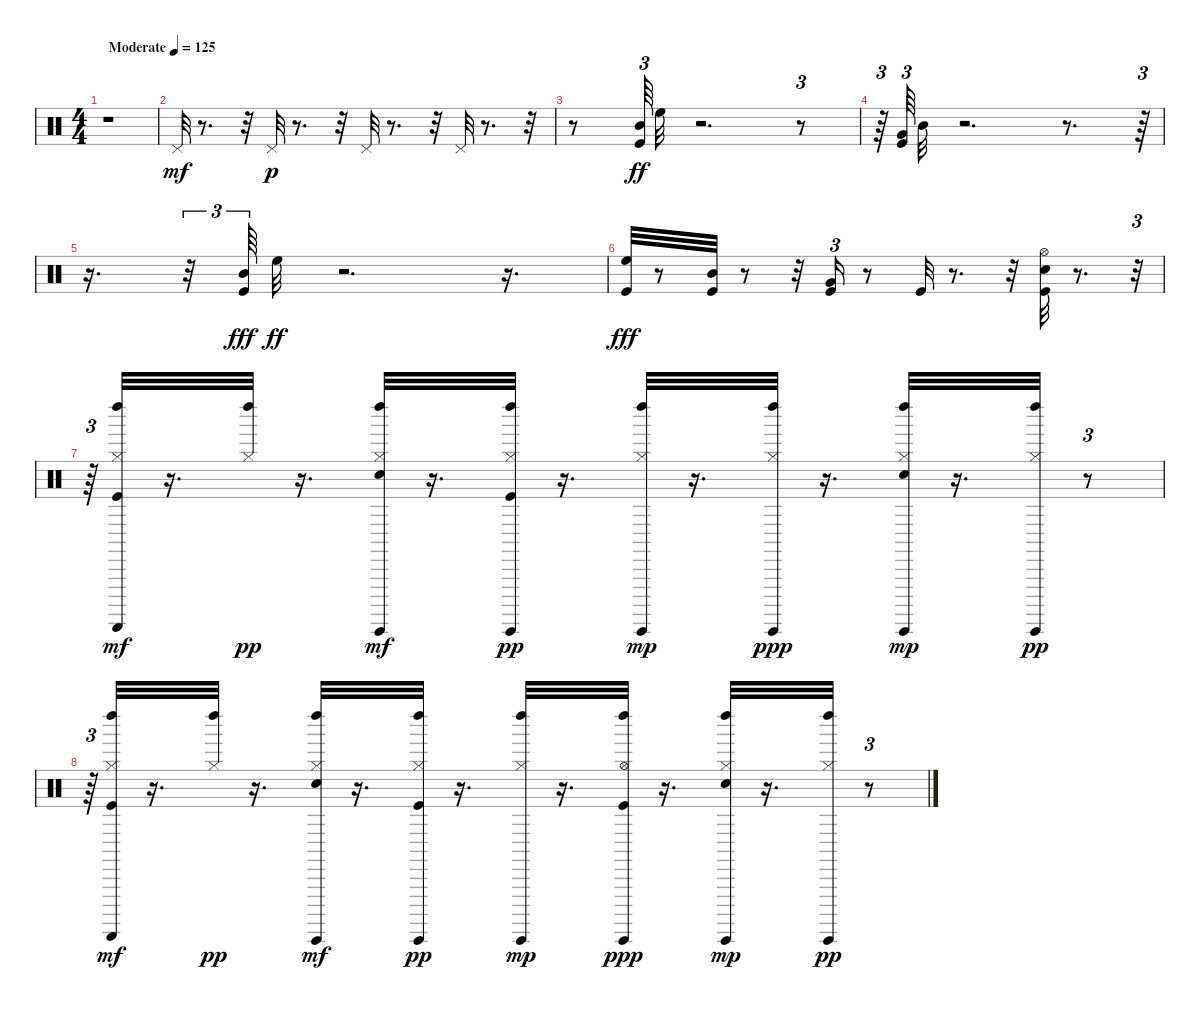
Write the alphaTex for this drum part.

\track "" {instrument percussion}
\staff {score}
\articulation defaults
\ts (4 4)
\tempo (125 "Moderate")
\clef neutral
\ks c
r.1{dy mf} |
"Pedal Hi-Hat (hit)".32 r.8{d} r.32 "Pedal Hi-Hat (hit)".32{dy p} r.8{d} r.32 "Pedal Hi-Hat (hit)".32 r.8{d} r.32 "Pedal Hi-Hat (hit)".32 r.8{d} r.32 |
r.8 ("Kick (hit)" "Mid Tom (hit)").64{tu (3 2) dy ff} "High Floor Tom (hit)".32 r.2{d} r.8{tu (3 2)} |
r.64{tu (3 2)} ("Kick (hit)" "Very Low Tom (hit)").64{tu (3 2)} "Mid Tom (hit)".32 r.2{d} r.8{d} r.64{tu (3 2)} |
r.16{d} r.32{tu (3 2)} ("Mid Tom (hit)" "Kick (hit)").64{tu (3 2) dy fff} "High Floor Tom (hit)".32{dy ff} r.2{d} r.16{d} |
("High Floor Tom (hit)" "Kick (hit)").32{dy fff} r.8 ("Mid Tom (hit)" "Kick (hit)").32 r.8 r.32 ("Very Low Tom (hit)" "Kick (hit)").16{tu (3 2)} r.8 "Kick (hit)".32 r.8{d} r.32 ("Electric Snare (hit)" "Kick (hit)" "Hi-Hat (open)").32 r.8{d} r.32{tu (3 2)} |
r.64{tu (3 2)} ("Hi-Hat (closed)" "Left Maraca (hit)" "Kick (hit)" "Guiro (scrap-return)").32{dy mf} r.16{d} ("Hi-Hat (closed)" "Left Maraca (hit)").32{dy pp} r.16{d} ("Electric Snare (hit)" "Hi-Hat (closed)" "Left Maraca (hit)" "Guiro (hit)").32{dy mf} r.16{d} ("Kick (hit)" "Hi-Hat (closed)" "Left Maraca (hit)" "Guiro (hit)").32{dy pp} r.16{d} ("Left Maraca (hit)" "Hi-Hat (closed)" "Guiro (hit)").32{dy mp} r.16{d} ("Left Maraca (hit)" "Hi-Hat (closed)" "Guiro (hit)").32{dy ppp} r.16{d} ("Electric Snare (hit)" "Hi-Hat (closed)" "Left Maraca (hit)" "Guiro (hit)").32{dy mp} r.16{d} ("Left Maraca (hit)" "Hi-Hat (closed)" "Guiro (hit)").32{dy pp} r.8{tu (3 2)} |
r.64{tu (3 2)} ("Kick (hit)" "Hi-Hat (closed)" "Left Maraca (hit)" "Guiro (scrap-return)").32{dy mf} r.16{d} ("Left Maraca (hit)" "Hi-Hat (closed)").32{dy pp} r.16{d} ("Left Maraca (hit)" "Hi-Hat (closed)" "Electric Snare (hit)" "Guiro (hit)").32{dy mf} r.16{d} ("Left Maraca (hit)" "Hi-Hat (closed)" "Kick (hit)" "Guiro (hit)").32{dy pp} r.16{d} ("Left Maraca (hit)" "Hi-Hat (closed)" "Guiro (hit)").32{dy mp} r.16{d} ("Kick (hit)" "Hi-Hat (open)" "Left Maraca (hit)" "Guiro (hit)").32{dy ppp} r.16{d} ("Electric Snare (hit)" "Hi-Hat (closed)" "Left Maraca (hit)" "Guiro (hit)").32{dy mp} r.16{d} ("Hi-Hat (closed)" "Left Maraca (hit)" "Guiro (hit)").32{dy pp} r.8{tu (3 2)}
